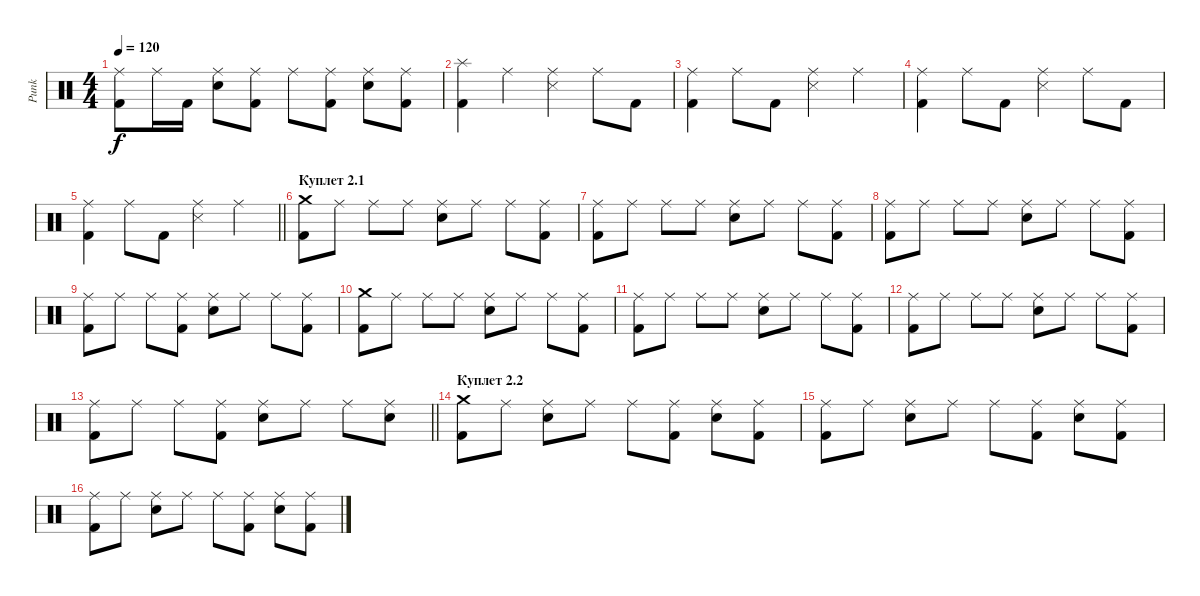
\track ("Punk" "Punk") {instrument percussion}
\staff {score}
\articulation defaults
\ts (4 4)
\tempo 120
\clef neutral
\ks c
("Ride (middle)" "Kick (hit) 2").8{dy f} "Ride (middle)".16 "Kick (hit) 2".16 ("Ride (middle)" "Electric Snare (hit)").8 ("Ride (middle)" "Kick (hit) 2").8 "Ride (middle)".8 ("Ride (middle)" "Kick (hit) 2").8 ("Ride (middle)" "Electric Snare (hit)").8 ("Ride (middle)" "Kick (hit) 2").8 |
("Splash (hit)" "Kick (hit) 2").4 "Ride (middle)".4 ("Ride (middle)" "Snare (side stick) 3").4 "Ride (middle)".8 "Kick (hit) 2".8 |
("Ride (middle)" "Kick (hit) 2").4 "Ride (middle)".8 "Kick (hit) 2".8 ("Ride (middle)" "Snare (side stick) 3").4 "Ride (middle)".4 |
("Ride (middle)" "Kick (hit) 2").4 "Ride (middle)".8 "Kick (hit) 2".8 ("Ride (middle)" "Snare (side stick) 3").4 "Ride (middle)".8 "Kick (hit) 2".8 |
\barLineRight lightlight
("Ride (middle)" "Kick (hit) 2").4 "Ride (middle)".8 "Kick (hit) 2".8 ("Ride (middle)" "Snare (side stick) 3").4 "Ride (middle)".4 |
\section ("" "Куплет 2.1")
("Crash medium (hit)" "Kick (hit) 2").8 "Ride (middle)".8 "Ride (middle)".8 "Ride (middle)".8 ("Ride (middle)" "Electric Snare (hit)").8 "Ride (middle)".8 "Ride (middle)".8 ("Ride (middle)" "Kick (hit) 2").8 |
("Ride (middle)" "Kick (hit) 2").8 "Ride (middle)".8 "Ride (middle)".8 "Ride (middle)".8 ("Ride (middle)" "Electric Snare (hit)").8 "Ride (middle)".8 "Ride (middle)".8 ("Ride (middle)" "Kick (hit) 2").8 |
("Ride (middle)" "Kick (hit) 2").8 "Ride (middle)".8 "Ride (middle)".8 "Ride (middle)".8 ("Ride (middle)" "Electric Snare (hit)").8 "Ride (middle)".8 "Ride (middle)".8 ("Ride (middle)" "Kick (hit) 2").8 |
("Ride (middle)" "Kick (hit) 2").8 "Ride (middle)".8 "Ride (middle)".8 ("Ride (middle)" "Kick (hit) 2").8 ("Ride (middle)" "Electric Snare (hit)").8 "Ride (middle)".8 "Ride (middle)".8 ("Ride (middle)" "Kick (hit) 2").8 |
("Crash medium (hit)" "Kick (hit) 2").8 "Ride (middle)".8 "Ride (middle)".8 "Ride (middle)".8 ("Ride (middle)" "Electric Snare (hit)").8 "Ride (middle)".8 "Ride (middle)".8 ("Ride (middle)" "Kick (hit) 2").8 |
("Ride (middle)" "Kick (hit) 2").8 "Ride (middle)".8 "Ride (middle)".8 "Ride (middle)".8 ("Ride (middle)" "Electric Snare (hit)").8 "Ride (middle)".8 "Ride (middle)".8 ("Ride (middle)" "Kick (hit) 2").8 |
("Ride (middle)" "Kick (hit) 2").8 "Ride (middle)".8 "Ride (middle)".8 "Ride (middle)".8 ("Ride (middle)" "Electric Snare (hit)").8 "Ride (middle)".8 "Ride (middle)".8 ("Ride (middle)" "Kick (hit) 2").8 |
\barLineRight lightlight
("Ride (middle)" "Kick (hit) 2").8 "Ride (middle)".8 "Ride (middle)".8 ("Ride (middle)" "Kick (hit) 2").8 ("Ride (middle)" "Electric Snare (hit)").8 "Ride (middle)".8 "Ride (middle)".8 ("Ride (middle)" "Electric Snare (hit)").8 |
\section ("" "Куплет 2.2")
("Crash medium (hit)" "Kick (hit) 2").8 "Ride (middle)".8 ("Ride (middle)" "Electric Snare (hit)").8 "Ride (middle)".8 "Ride (middle)".8 ("Ride (middle)" "Kick (hit) 2").8 ("Ride (middle)" "Electric Snare (hit)").8 ("Ride (middle)" "Kick (hit) 2").8 |
("Ride (middle)" "Kick (hit) 2").8 "Ride (middle)".8 ("Ride (middle)" "Electric Snare (hit)").8 "Ride (middle)".8 "Ride (middle)".8 ("Ride (middle)" "Kick (hit) 2").8 ("Ride (middle)" "Electric Snare (hit)").8 ("Ride (middle)" "Kick (hit) 2").8 |
("Ride (middle)" "Kick (hit) 2").8 "Ride (middle)".8 ("Ride (middle)" "Electric Snare (hit)").8 "Ride (middle)".8 "Ride (middle)".8 ("Ride (middle)" "Kick (hit) 2").8 ("Ride (middle)" "Electric Snare (hit)").8 ("Ride (middle)" "Kick (hit) 2").8
